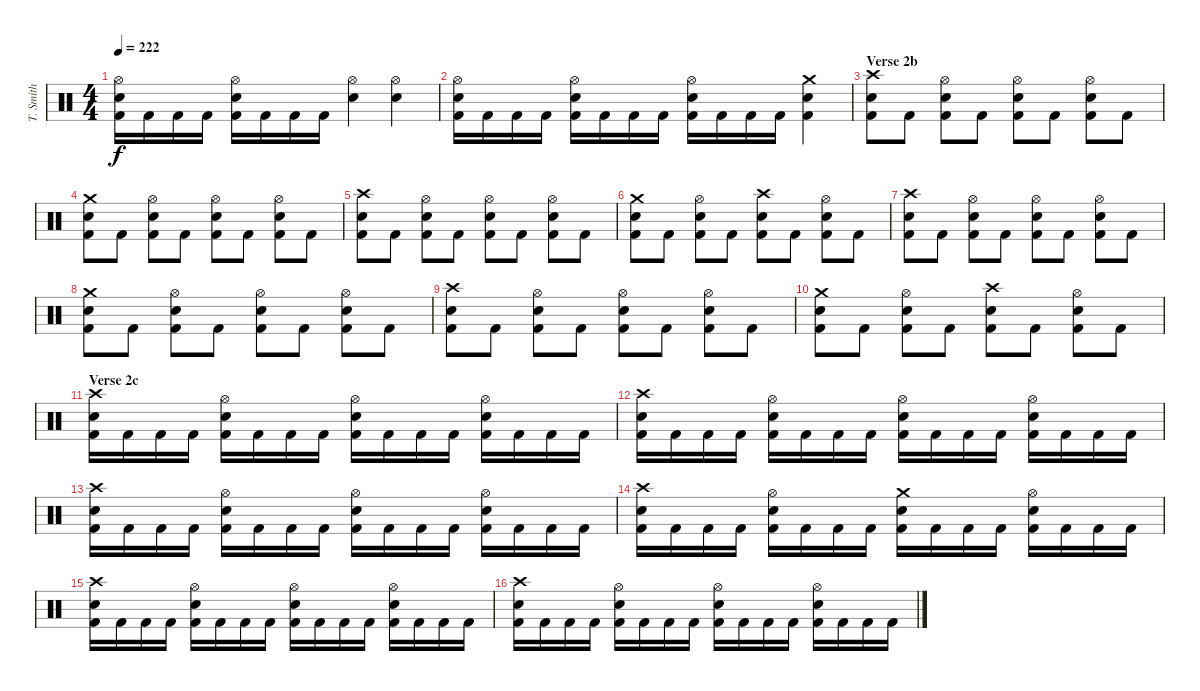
\track ("T. Smith" "T. Smith") {instrument percussion}
\staff {score}
\articulation defaults
\ts (4 4)
\tempo 222
\clef neutral
\ks c
("Hi-Hat (open)" "Electric Snare (hit)" "Kick (hit) 2").16{dy f} "Kick (hit) 2".16 "Kick (hit) 2".16 "Kick (hit) 2".16 ("Hi-Hat (open)" "Electric Snare (hit)" "Kick (hit) 2").16 "Kick (hit) 2".16 "Kick (hit) 2".16 "Kick (hit) 2".16 ("Hi-Hat (open)" "Electric Snare (hit)").4 ("Hi-Hat (open)" "Electric Snare (hit)").4 |
("Hi-Hat (open)" "Electric Snare (hit)" "Kick (hit) 2").16 "Kick (hit) 2".16 "Kick (hit) 2".16 "Kick (hit) 2".16 ("Hi-Hat (open)" "Electric Snare (hit)" "Kick (hit) 2").16 "Kick (hit) 2".16 "Kick (hit) 2".16 "Kick (hit) 2".16 ("Hi-Hat (open)" "Electric Snare (hit)" "Kick (hit) 2").16 "Kick (hit) 2".16 "Kick (hit) 2".16 "Kick (hit) 2".16 ("Crash medium (hit)" "Electric Snare (hit)" "Kick (hit) 2").4 |
\section ("" "Verse 2b")
("Crash high (hit)" "Electric Snare (hit)" "Kick (hit) 2").8 "Kick (hit) 2".8 ("Hi-Hat (open)" "Electric Snare (hit)" "Kick (hit) 2").8 "Kick (hit) 2".8 ("Hi-Hat (open)" "Electric Snare (hit)" "Kick (hit) 2").8 "Kick (hit) 2".8 ("Hi-Hat (open)" "Electric Snare (hit)" "Kick (hit) 2").8 "Kick (hit) 2".8 |
("Crash medium (hit)" "Electric Snare (hit)" "Kick (hit) 2").8 "Kick (hit) 2".8 ("Hi-Hat (open)" "Electric Snare (hit)" "Kick (hit) 2").8 "Kick (hit) 2".8 ("Hi-Hat (open)" "Electric Snare (hit)" "Kick (hit) 2").8 "Kick (hit) 2".8 ("Hi-Hat (open)" "Electric Snare (hit)" "Kick (hit) 2").8 "Kick (hit) 2".8 |
("Crash high (hit)" "Electric Snare (hit)" "Kick (hit) 2").8 "Kick (hit) 2".8 ("Hi-Hat (open)" "Electric Snare (hit)" "Kick (hit) 2").8 "Kick (hit) 2".8 ("Hi-Hat (open)" "Electric Snare (hit)" "Kick (hit) 2").8 "Kick (hit) 2".8 ("Hi-Hat (open)" "Electric Snare (hit)" "Kick (hit) 2").8 "Kick (hit) 2".8 |
("Crash medium (hit)" "Electric Snare (hit)" "Kick (hit) 2").8 "Kick (hit) 2".8 ("Hi-Hat (open)" "Electric Snare (hit)" "Kick (hit) 2").8 "Kick (hit) 2".8 ("Crash high (hit)" "Electric Snare (hit)" "Kick (hit) 2").8 "Kick (hit) 2".8 ("Hi-Hat (open)" "Electric Snare (hit)" "Kick (hit) 2").8 "Kick (hit) 2".8 |
("Crash high (hit)" "Electric Snare (hit)" "Kick (hit) 2").8 "Kick (hit) 2".8 ("Hi-Hat (open)" "Electric Snare (hit)" "Kick (hit) 2").8 "Kick (hit) 2".8 ("Hi-Hat (open)" "Electric Snare (hit)" "Kick (hit) 2").8 "Kick (hit) 2".8 ("Hi-Hat (open)" "Electric Snare (hit)" "Kick (hit) 2").8 "Kick (hit) 2".8 |
("Crash medium (hit)" "Electric Snare (hit)" "Kick (hit) 2").8 "Kick (hit) 2".8 ("Hi-Hat (open)" "Electric Snare (hit)" "Kick (hit) 2").8 "Kick (hit) 2".8 ("Hi-Hat (open)" "Electric Snare (hit)" "Kick (hit) 2").8 "Kick (hit) 2".8 ("Hi-Hat (open)" "Electric Snare (hit)" "Kick (hit) 2").8 "Kick (hit) 2".8 |
("Crash high (hit)" "Electric Snare (hit)" "Kick (hit) 2").8 "Kick (hit) 2".8 ("Hi-Hat (open)" "Electric Snare (hit)" "Kick (hit) 2").8 "Kick (hit) 2".8 ("Hi-Hat (open)" "Electric Snare (hit)" "Kick (hit) 2").8 "Kick (hit) 2".8 ("Hi-Hat (open)" "Electric Snare (hit)" "Kick (hit) 2").8 "Kick (hit) 2".8 |
("Crash medium (hit)" "Electric Snare (hit)" "Kick (hit) 2").8 "Kick (hit) 2".8 ("Hi-Hat (open)" "Electric Snare (hit)" "Kick (hit) 2").8 "Kick (hit) 2".8 ("Crash high (hit)" "Electric Snare (hit)" "Kick (hit) 2").8 "Kick (hit) 2".8 ("Hi-Hat (open)" "Electric Snare (hit)" "Kick (hit) 2").8 "Kick (hit) 2".8 |
\section ("" "Verse 2c")
("Crash high (hit)" "Electric Snare (hit)" "Kick (hit) 2").16 "Kick (hit) 2".16 "Kick (hit) 2".16 "Kick (hit) 2".16 ("Hi-Hat (open)" "Electric Snare (hit)" "Kick (hit) 2").16 "Kick (hit) 2".16 "Kick (hit) 2".16 "Kick (hit) 2".16 ("Hi-Hat (open)" "Electric Snare (hit)" "Kick (hit) 2").16 "Kick (hit) 2".16 "Kick (hit) 2".16 "Kick (hit) 2".16 ("Hi-Hat (open)" "Electric Snare (hit)" "Kick (hit) 2").16 "Kick (hit) 2".16 "Kick (hit) 2".16 "Kick (hit) 2".16 |
("Crash high (hit)" "Electric Snare (hit)" "Kick (hit) 2").16 "Kick (hit) 2".16 "Kick (hit) 2".16 "Kick (hit) 2".16 ("Hi-Hat (open)" "Electric Snare (hit)" "Kick (hit) 2").16 "Kick (hit) 2".16 "Kick (hit) 2".16 "Kick (hit) 2".16 ("Hi-Hat (open)" "Electric Snare (hit)" "Kick (hit) 2").16 "Kick (hit) 2".16 "Kick (hit) 2".16 "Kick (hit) 2".16 ("Hi-Hat (open)" "Electric Snare (hit)" "Kick (hit) 2").16 "Kick (hit) 2".16 "Kick (hit) 2".16 "Kick (hit) 2".16 |
("Crash high (hit)" "Electric Snare (hit)" "Kick (hit) 2").16 "Kick (hit) 2".16 "Kick (hit) 2".16 "Kick (hit) 2".16 ("Hi-Hat (open)" "Electric Snare (hit)" "Kick (hit) 2").16 "Kick (hit) 2".16 "Kick (hit) 2".16 "Kick (hit) 2".16 ("Hi-Hat (open)" "Electric Snare (hit)" "Kick (hit) 2").16 "Kick (hit) 2".16 "Kick (hit) 2".16 "Kick (hit) 2".16 ("Hi-Hat (open)" "Electric Snare (hit)" "Kick (hit) 2").16 "Kick (hit) 2".16 "Kick (hit) 2".16 "Kick (hit) 2".16 |
("Crash high (hit)" "Electric Snare (hit)" "Kick (hit) 2").16 "Kick (hit) 2".16 "Kick (hit) 2".16 "Kick (hit) 2".16 ("Hi-Hat (open)" "Electric Snare (hit)" "Kick (hit) 2").16 "Kick (hit) 2".16 "Kick (hit) 2".16 "Kick (hit) 2".16 ("Crash medium (hit)" "Electric Snare (hit)" "Kick (hit) 2").16 "Kick (hit) 2".16 "Kick (hit) 2".16 "Kick (hit) 2".16 ("Hi-Hat (open)" "Electric Snare (hit)" "Kick (hit) 2").16 "Kick (hit) 2".16 "Kick (hit) 2".16 "Kick (hit) 2".16 |
("Crash high (hit)" "Electric Snare (hit)" "Kick (hit) 2").16 "Kick (hit) 2".16 "Kick (hit) 2".16 "Kick (hit) 2".16 ("Hi-Hat (open)" "Electric Snare (hit)" "Kick (hit) 2").16 "Kick (hit) 2".16 "Kick (hit) 2".16 "Kick (hit) 2".16 ("Hi-Hat (open)" "Electric Snare (hit)" "Kick (hit) 2").16 "Kick (hit) 2".16 "Kick (hit) 2".16 "Kick (hit) 2".16 ("Hi-Hat (open)" "Electric Snare (hit)" "Kick (hit) 2").16 "Kick (hit) 2".16 "Kick (hit) 2".16 "Kick (hit) 2".16 |
("Crash high (hit)" "Electric Snare (hit)" "Kick (hit) 2").16 "Kick (hit) 2".16 "Kick (hit) 2".16 "Kick (hit) 2".16 ("Hi-Hat (open)" "Electric Snare (hit)" "Kick (hit) 2").16 "Kick (hit) 2".16 "Kick (hit) 2".16 "Kick (hit) 2".16 ("Hi-Hat (open)" "Electric Snare (hit)" "Kick (hit) 2").16 "Kick (hit) 2".16 "Kick (hit) 2".16 "Kick (hit) 2".16 ("Hi-Hat (open)" "Electric Snare (hit)" "Kick (hit) 2").16 "Kick (hit) 2".16 "Kick (hit) 2".16 "Kick (hit) 2".16
